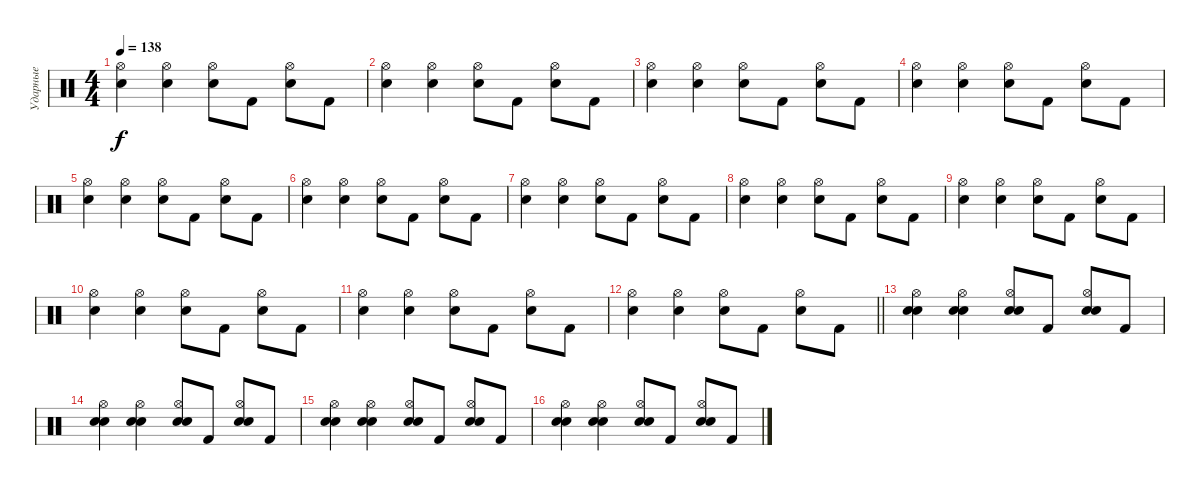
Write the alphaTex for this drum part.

\track ("Ударные" "Ударные") {instrument percussion}
\staff {score}
\articulation defaults
\ts (4 4)
\tempo 138
\clef neutral
\ks c
("Snare (hit) 2" "Hi-Hat (open)").4{dy f} ("Snare (hit) 2" "Hi-Hat (open)").4 ("Snare (hit) 2" "Hi-Hat (open)").8 "Kick (hit) 2".8 ("Hi-Hat (open)" "Snare (hit) 2").8 "Kick (hit) 2".8 |
("Snare (hit) 2" "Hi-Hat (open)").4 ("Snare (hit) 2" "Hi-Hat (open)").4 ("Snare (hit) 2" "Hi-Hat (open)").8 "Kick (hit) 2".8 ("Hi-Hat (open)" "Snare (hit) 2").8 "Kick (hit) 2".8 |
("Snare (hit) 2" "Hi-Hat (open)").4 ("Snare (hit) 2" "Hi-Hat (open)").4 ("Snare (hit) 2" "Hi-Hat (open)").8 "Kick (hit) 2".8 ("Hi-Hat (open)" "Snare (hit) 2").8 "Kick (hit) 2".8 |
("Snare (hit) 2" "Hi-Hat (open)").4 ("Snare (hit) 2" "Hi-Hat (open)").4 ("Snare (hit) 2" "Hi-Hat (open)").8 "Kick (hit) 2".8 ("Hi-Hat (open)" "Snare (hit) 2").8 "Kick (hit) 2".8 |
("Snare (hit) 2" "Hi-Hat (open)").4 ("Snare (hit) 2" "Hi-Hat (open)").4 ("Snare (hit) 2" "Hi-Hat (open)").8 "Kick (hit) 2".8 ("Hi-Hat (open)" "Snare (hit) 2").8 "Kick (hit) 2".8 |
("Snare (hit) 2" "Hi-Hat (open)").4 ("Snare (hit) 2" "Hi-Hat (open)").4 ("Snare (hit) 2" "Hi-Hat (open)").8 "Kick (hit) 2".8 ("Hi-Hat (open)" "Snare (hit) 2").8 "Kick (hit) 2".8 |
("Snare (hit) 2" "Hi-Hat (open)").4 ("Snare (hit) 2" "Hi-Hat (open)").4 ("Snare (hit) 2" "Hi-Hat (open)").8 "Kick (hit) 2".8 ("Hi-Hat (open)" "Snare (hit) 2").8 "Kick (hit) 2".8 |
("Snare (hit) 2" "Hi-Hat (open)").4 ("Snare (hit) 2" "Hi-Hat (open)").4 ("Snare (hit) 2" "Hi-Hat (open)").8 "Kick (hit) 2".8 ("Hi-Hat (open)" "Snare (hit) 2").8 "Kick (hit) 2".8 |
("Snare (hit) 2" "Hi-Hat (open)").4 ("Snare (hit) 2" "Hi-Hat (open)").4 ("Snare (hit) 2" "Hi-Hat (open)").8 "Kick (hit) 2".8 ("Hi-Hat (open)" "Snare (hit) 2").8 "Kick (hit) 2".8 |
("Snare (hit) 2" "Hi-Hat (open)").4 ("Snare (hit) 2" "Hi-Hat (open)").4 ("Snare (hit) 2" "Hi-Hat (open)").8 "Kick (hit) 2".8 ("Hi-Hat (open)" "Snare (hit) 2").8 "Kick (hit) 2".8 |
("Snare (hit) 2" "Hi-Hat (open)").4 ("Snare (hit) 2" "Hi-Hat (open)").4 ("Snare (hit) 2" "Hi-Hat (open)").8 "Kick (hit) 2".8 ("Hi-Hat (open)" "Snare (hit) 2").8 "Kick (hit) 2".8 |
\barLineRight lightlight
("Snare (hit) 2" "Hi-Hat (open)").4 ("Snare (hit) 2" "Hi-Hat (open)").4 ("Snare (hit) 2" "Hi-Hat (open)").8 "Kick (hit) 2".8 ("Hi-Hat (open)" "Snare (hit) 2").8 "Kick (hit) 2".8 |
("Hand Clap (hit)" "Snare (hit) 2" "Hi-Hat (open)").4 ("Hand Clap (hit)" "Snare (hit) 2" "Hi-Hat (open)").4 ("Hand Clap (hit)" "Snare (hit) 2" "Hi-Hat (open)").8 "Kick (hit) 2".8 ("Hand Clap (hit)" "Hi-Hat (open)" "Snare (hit) 2").8 "Kick (hit) 2".8 |
("Hand Clap (hit)" "Snare (hit) 2" "Hi-Hat (open)").4 ("Hand Clap (hit)" "Snare (hit) 2" "Hi-Hat (open)").4 ("Hand Clap (hit)" "Snare (hit) 2" "Hi-Hat (open)").8 "Kick (hit) 2".8 ("Hand Clap (hit)" "Hi-Hat (open)" "Snare (hit) 2").8 "Kick (hit) 2".8 |
("Hand Clap (hit)" "Snare (hit) 2" "Hi-Hat (open)").4 ("Hand Clap (hit)" "Snare (hit) 2" "Hi-Hat (open)").4 ("Hand Clap (hit)" "Snare (hit) 2" "Hi-Hat (open)").8 "Kick (hit) 2".8 ("Hand Clap (hit)" "Hi-Hat (open)" "Snare (hit) 2").8 "Kick (hit) 2".8 |
("Hand Clap (hit)" "Snare (hit) 2" "Hi-Hat (open)").4 ("Hand Clap (hit)" "Snare (hit) 2" "Hi-Hat (open)").4 ("Hand Clap (hit)" "Snare (hit) 2" "Hi-Hat (open)").8 "Kick (hit) 2".8 ("Hand Clap (hit)" "Hi-Hat (open)" "Snare (hit) 2").8 "Kick (hit) 2".8
